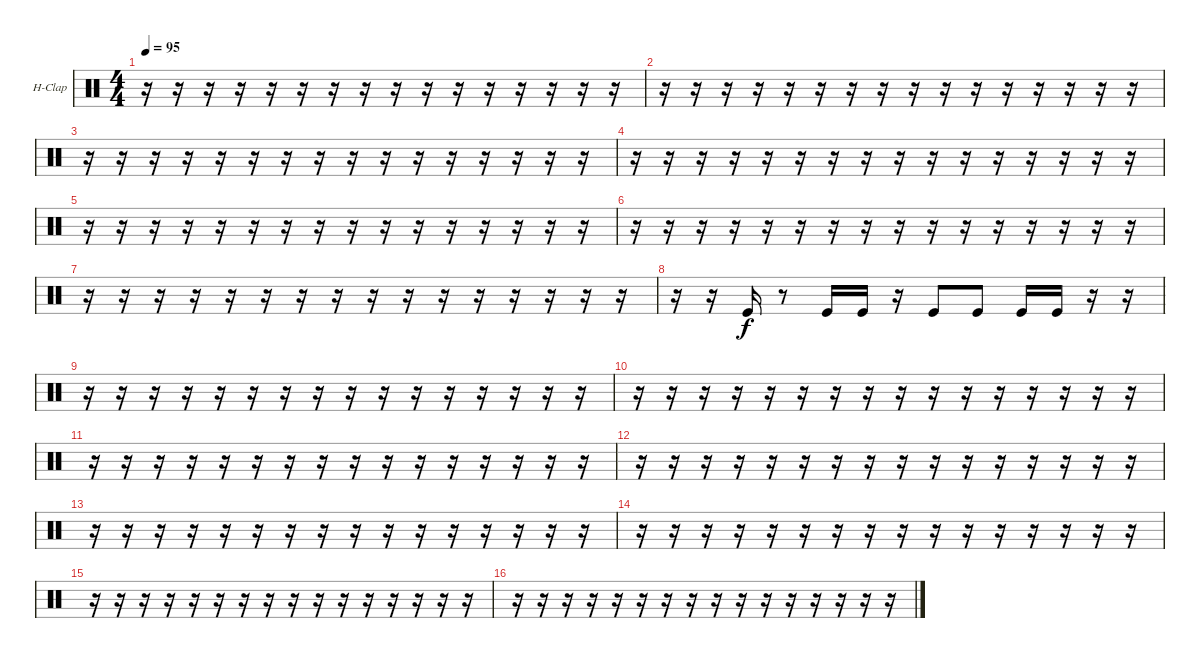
\bracketExtendMode groupsimilarinstruments
\firstSystemTrackNameOrientation horizontal
\otherSystemsTrackNameOrientation horizontal
\track ("Hand Clap" "H-Clap") {instrument percussion}
\staff {score}
\articulation defaults
\ts (4 4)
\tempo 95
\clef neutral
\ks c
r.16{dy f} r.16 r.16 r.16 r.16 r.16 r.16 r.16 r.16 r.16 r.16 r.16 r.16 r.16 r.16 r.16 |
r.16 r.16 r.16 r.16 r.16 r.16 r.16 r.16 r.16 r.16 r.16 r.16 r.16 r.16 r.16 r.16 |
r.16 r.16 r.16 r.16 r.16 r.16 r.16 r.16 r.16 r.16 r.16 r.16 r.16 r.16 r.16 r.16 |
r.16 r.16 r.16 r.16 r.16 r.16 r.16 r.16 r.16 r.16 r.16 r.16 r.16 r.16 r.16 r.16 |
r.16 r.16 r.16 r.16 r.16 r.16 r.16 r.16 r.16 r.16 r.16 r.16 r.16 r.16 r.16 r.16 |
r.16 r.16 r.16 r.16 r.16 r.16 r.16 r.16 r.16 r.16 r.16 r.16 r.16 r.16 r.16 r.16 |
r.16 r.16 r.16 r.16 r.16 r.16 r.16 r.16 r.16 r.16 r.16 r.16 r.16 r.16 r.16 r.16 |
r.16 r.16 "Kick (hit)".16 r.8 "Kick (hit)".16 "Kick (hit)".16 r.16 "Kick (hit)".8 "Kick (hit)".8 "Kick (hit)".16 "Kick (hit)".16 r.16 r.16 |
r.16 r.16 r.16 r.16 r.16 r.16 r.16 r.16 r.16 r.16 r.16 r.16 r.16 r.16 r.16 r.16 |
r.16 r.16 r.16 r.16 r.16 r.16 r.16 r.16 r.16 r.16 r.16 r.16 r.16 r.16 r.16 r.16 |
r.16 r.16 r.16 r.16 r.16 r.16 r.16 r.16 r.16 r.16 r.16 r.16 r.16 r.16 r.16 r.16 |
r.16 r.16 r.16 r.16 r.16 r.16 r.16 r.16 r.16 r.16 r.16 r.16 r.16 r.16 r.16 r.16 |
r.16 r.16 r.16 r.16 r.16 r.16 r.16 r.16 r.16 r.16 r.16 r.16 r.16 r.16 r.16 r.16 |
r.16 r.16 r.16 r.16 r.16 r.16 r.16 r.16 r.16 r.16 r.16 r.16 r.16 r.16 r.16 r.16 |
r.16 r.16 r.16 r.16 r.16 r.16 r.16 r.16 r.16 r.16 r.16 r.16 r.16 r.16 r.16 r.16 |
r.16 r.16 r.16 r.16 r.16 r.16 r.16 r.16 r.16 r.16 r.16 r.16 r.16 r.16 r.16 r.16
